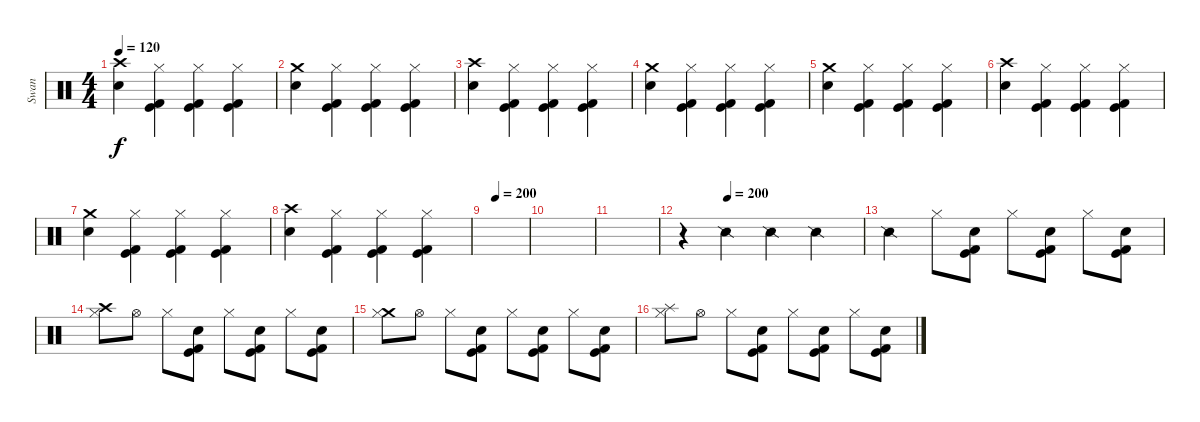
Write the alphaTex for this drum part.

\track ("Swan" "Swan") {instrument percussion}
\staff {score}
\articulation defaults
\ts (4 4)
\tempo 120
\clef neutral
\ks c
("Crash high (hit)" "Snare (hit)").4{dy f} ("Kick (hit) 2" "Kick (hit)" "Hi-Hat (closed)").4 ("Kick (hit) 2" "Kick (hit)" "Hi-Hat (closed)").4 ("Kick (hit) 2" "Kick (hit)" "Hi-Hat (closed)").4 |
("Crash medium (hit)" "Snare (hit)").4 ("Kick (hit) 2" "Kick (hit)" "Hi-Hat (closed)").4 ("Kick (hit) 2" "Kick (hit)" "Hi-Hat (closed)").4 ("Kick (hit) 2" "Kick (hit)" "Hi-Hat (closed)").4 |
("Crash high (hit)" "Snare (hit)").4 ("Kick (hit) 2" "Kick (hit)" "Hi-Hat (closed)").4 ("Kick (hit) 2" "Kick (hit)" "Hi-Hat (closed)").4 ("Kick (hit) 2" "Kick (hit)" "Hi-Hat (closed)").4 |
("Crash medium (hit)" "Snare (hit)").4 ("Kick (hit) 2" "Kick (hit)" "Hi-Hat (closed)").4 ("Kick (hit) 2" "Kick (hit)" "Hi-Hat (closed)").4 ("Kick (hit) 2" "Kick (hit)" "Hi-Hat (closed)").4 |
("Crash medium (hit)" "Snare (hit)").4 ("Kick (hit) 2" "Kick (hit)" "Hi-Hat (closed)").4 ("Kick (hit) 2" "Kick (hit)" "Hi-Hat (closed)").4 ("Kick (hit) 2" "Kick (hit)" "Hi-Hat (closed)").4 |
("Crash high (hit)" "Snare (hit)").4 ("Kick (hit) 2" "Kick (hit)" "Hi-Hat (closed)").4 ("Kick (hit) 2" "Kick (hit)" "Hi-Hat (closed)").4 ("Kick (hit) 2" "Kick (hit)" "Hi-Hat (closed)").4 |
("Crash medium (hit)" "Snare (hit)").4 ("Kick (hit) 2" "Kick (hit)" "Hi-Hat (closed)").4 ("Kick (hit) 2" "Kick (hit)" "Hi-Hat (closed)").4 ("Kick (hit) 2" "Kick (hit)" "Hi-Hat (closed)").4 |
("Crash high (hit)" "Snare (hit)").4 ("Kick (hit) 2" "Kick (hit)" "Hi-Hat (closed)").4 ("Kick (hit) 2" "Kick (hit)" "Hi-Hat (closed)").4 ("Kick (hit) 2" "Kick (hit)" "Hi-Hat (closed)").4 |
\tempo (200 0.25)
|
|
|
\tempo (200 0.25)
r.4 "Snare (side stick) 2".4 "Snare (side stick) 2".4 "Snare (side stick) 2".4 |
"Snare (side stick) 2".4 "Hi-Hat (closed)".8 ("Kick (hit)" "Kick (hit) 2" "Snare (hit) 2").8 "Hi-Hat (closed)".8 ("Kick (hit)" "Kick (hit) 2" "Snare (hit) 2").8 "Hi-Hat (closed)".8 ("Kick (hit)" "Kick (hit) 2" "Snare (hit) 2").8 |
("Crash high (hit)" "Hi-Hat (closed)").8 "Hi-Hat (open)".8 "Hi-Hat (closed)".8 ("Kick (hit)" "Kick (hit) 2" "Snare (hit) 2").8 "Hi-Hat (closed)".8 ("Kick (hit)" "Kick (hit) 2" "Snare (hit) 2").8 "Hi-Hat (closed)".8 ("Kick (hit)" "Kick (hit) 2" "Snare (hit) 2").8 |
("Crash medium (hit)" "Hi-Hat (closed)").8 "Hi-Hat (open)".8 "Hi-Hat (closed)".8 ("Kick (hit)" "Kick (hit) 2" "Snare (hit) 2").8 "Hi-Hat (closed)".8 ("Kick (hit)" "Kick (hit) 2" "Snare (hit) 2").8 "Hi-Hat (closed)".8 ("Kick (hit)" "Kick (hit) 2" "Snare (hit) 2").8 |
("Splash (hit)" "Hi-Hat (closed)").8 "Hi-Hat (open)".8 "Hi-Hat (closed)".8 ("Kick (hit)" "Kick (hit) 2" "Snare (hit) 2").8 "Hi-Hat (closed)".8 ("Kick (hit)" "Kick (hit) 2" "Snare (hit) 2").8 "Hi-Hat (closed)".8 ("Kick (hit)" "Kick (hit) 2" "Snare (hit) 2").8
